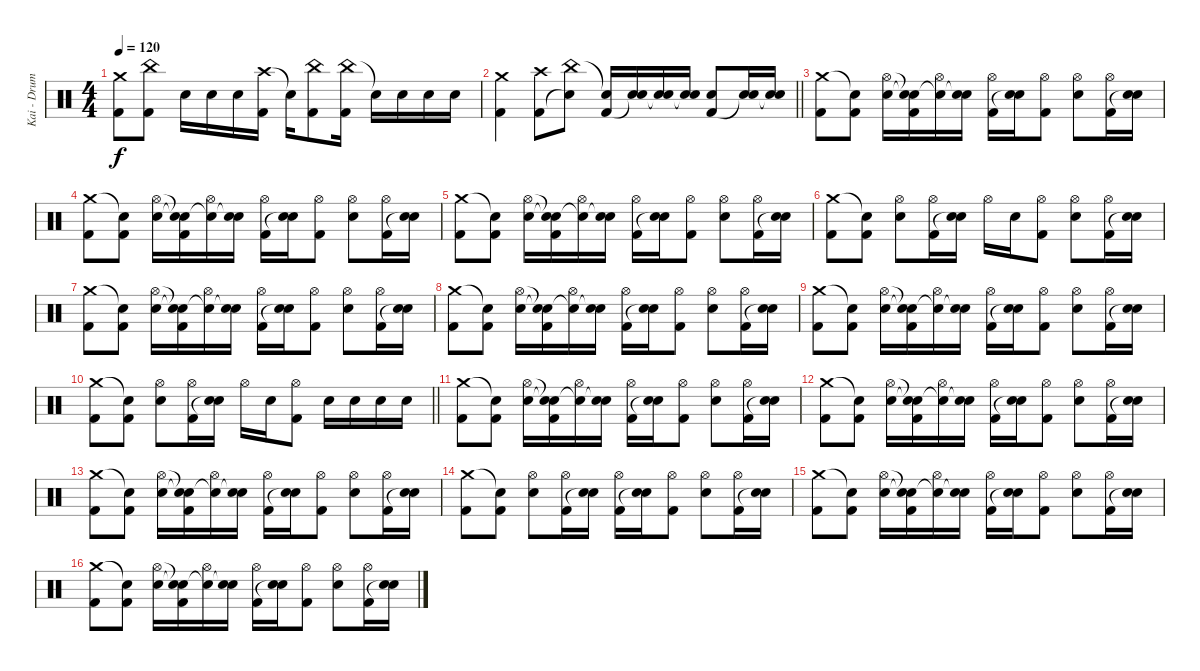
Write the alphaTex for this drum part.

\track ("Kai - Drums" "Kai - Drum") {instrument percussion}
\staff {score}
\articulation defaults
\ts (4 4)
\tempo 120
\clef neutral
\ks c
("Crash medium (hit)" "Kick (hit) 2").8{dy f} ("China (hit)" "Kick (hit) 2").8 "Snare (hit) 2".16 "Snare (hit) 2".16 "Snare (hit) 2".16 ("Crash high (hit)" "Kick (hit) 2").16 "Snare (hit)"{t}.16 ("China (hit)" "Kick (hit) 2").8 ("China (hit)" "Kick (hit) 2").16 "Snare (hit)"{t}.16 "Snare (hit) 2".16 "Snare (hit) 2".16 "Snare (hit) 2".16 |
\barLineRight lightlight
("Crash medium (hit)" "Kick (hit) 2").4 ("Crash high (hit)" "Kick (hit) 2").8 ("China (hit)" "Snare (hit)"{t}).8 ("Snare (hit)"{t} "Kick (hit) 2").16 ("Snare (hit) 2" "Snare (hit)"{t}).16 ("Snare (hit) 2" "Snare (hit)"{t}).16 ("Snare (hit) 2" "Snare (hit)"{t}).16 ("Snare (hit) 2" "Kick (hit) 2").8 ("Snare (hit) 2" "Snare (hit)"{t}).16 ("Snare (hit) 2" "Snare (hit)"{t}).16 |
("Crash medium (hit)" "Kick (hit) 2").8 ("Snare (hit)"{t} "Kick (hit) 2").8 ("Hi-Hat (open)" "Snare (hit) 2").16 ("Snare (hit)"{t} "Snare (hit)"{t} "Kick (hit) 2").16 ("Hi-Hat (open)" "Snare (hit)"{t}).16 ("Snare (hit) 2" "Snare (hit)"{t}).16 ("Hi-Hat (open)" "Kick (hit) 2").16 ("Snare (hit) 2" "Snare (hit)"{t}).16 ("Hi-Hat (open)" "Kick (hit) 2").8 ("Hi-Hat (open)" "Snare (hit) 2").8 ("Hi-Hat (open)" "Kick (hit) 2").16 ("Snare (hit) 2" "Snare (hit)"{t}).16 |
("Crash medium (hit)" "Kick (hit) 2").8 ("Snare (hit)"{t} "Kick (hit) 2").8 ("Hi-Hat (open)" "Snare (hit) 2").16 ("Snare (hit)"{t} "Snare (hit)"{t} "Kick (hit) 2").16 ("Hi-Hat (open)" "Snare (hit)"{t}).16 ("Snare (hit) 2" "Snare (hit)"{t}).16 ("Hi-Hat (open)" "Kick (hit) 2").16 ("Snare (hit) 2" "Snare (hit)"{t}).16 ("Hi-Hat (open)" "Kick (hit) 2").8 ("Hi-Hat (open)" "Snare (hit) 2").8 ("Hi-Hat (open)" "Kick (hit) 2").16 ("Snare (hit) 2" "Snare (hit)"{t}).16 |
("Crash medium (hit)" "Kick (hit) 2").8 ("Snare (hit)"{t} "Kick (hit) 2").8 ("Hi-Hat (open)" "Snare (hit) 2").16 ("Snare (hit)"{t} "Snare (hit)"{t} "Kick (hit) 2").16 ("Hi-Hat (open)" "Snare (hit)"{t}).16 ("Snare (hit) 2" "Snare (hit)"{t}).16 ("Hi-Hat (open)" "Kick (hit) 2").16 ("Snare (hit) 2" "Snare (hit)"{t}).16 ("Hi-Hat (open)" "Kick (hit) 2").8 ("Hi-Hat (open)" "Snare (hit) 2").8 ("Hi-Hat (open)" "Kick (hit) 2").16 ("Snare (hit) 2" "Snare (hit)"{t}).16 |
("Crash medium (hit)" "Kick (hit) 2").8 ("Snare (hit)"{t} "Kick (hit) 2").8 ("Hi-Hat (open)" "Snare (hit) 2").8 ("Hi-Hat (open)" "Kick (hit) 2").16 ("Snare (hit) 2" "Snare (hit)"{t}).16 "Hi-Hat (open)".16 "Snare (hit) 2".16 ("Hi-Hat (open)" "Kick (hit) 2").8 ("Hi-Hat (open)" "Snare (hit) 2").8 ("Hi-Hat (open)" "Kick (hit) 2").16 ("Snare (hit) 2" "Snare (hit)"{t}).16 |
("Crash medium (hit)" "Kick (hit) 2").8 ("Snare (hit)"{t} "Kick (hit) 2").8 ("Hi-Hat (open)" "Snare (hit) 2").16 ("Snare (hit)"{t} "Snare (hit)"{t} "Kick (hit) 2").16 ("Hi-Hat (open)" "Snare (hit)"{t}).16 ("Snare (hit) 2" "Snare (hit)"{t}).16 ("Hi-Hat (open)" "Kick (hit) 2").16 ("Snare (hit) 2" "Snare (hit)"{t}).16 ("Hi-Hat (open)" "Kick (hit) 2").8 ("Hi-Hat (open)" "Snare (hit) 2").8 ("Hi-Hat (open)" "Kick (hit) 2").16 ("Snare (hit) 2" "Snare (hit)"{t}).16 |
("Crash medium (hit)" "Kick (hit) 2").8 ("Snare (hit)"{t} "Kick (hit) 2").8 ("Hi-Hat (open)" "Snare (hit) 2").16 ("Snare (hit)"{t} "Snare (hit)"{t} "Kick (hit) 2").16 ("Hi-Hat (open)" "Snare (hit)"{t}).16 ("Snare (hit) 2" "Snare (hit)"{t}).16 ("Hi-Hat (open)" "Kick (hit) 2").16 ("Snare (hit) 2" "Snare (hit)"{t}).16 ("Hi-Hat (open)" "Kick (hit) 2").8 ("Hi-Hat (open)" "Snare (hit) 2").8 ("Hi-Hat (open)" "Kick (hit) 2").16 ("Snare (hit) 2" "Snare (hit)"{t}).16 |
("Crash medium (hit)" "Kick (hit) 2").8 ("Snare (hit)"{t} "Kick (hit) 2").8 ("Hi-Hat (open)" "Snare (hit) 2").16 ("Snare (hit)"{t} "Snare (hit)"{t} "Kick (hit) 2").16 ("Hi-Hat (open)" "Snare (hit)"{t}).16 ("Snare (hit) 2" "Snare (hit)"{t}).16 ("Hi-Hat (open)" "Kick (hit) 2").16 ("Snare (hit) 2" "Snare (hit)"{t}).16 ("Hi-Hat (open)" "Kick (hit) 2").8 ("Hi-Hat (open)" "Snare (hit) 2").8 ("Hi-Hat (open)" "Kick (hit) 2").16 ("Snare (hit) 2" "Snare (hit)"{t}).16 |
\barLineRight lightlight
("Crash medium (hit)" "Kick (hit) 2").8 ("Snare (hit)"{t} "Kick (hit) 2").8 ("Hi-Hat (open)" "Snare (hit) 2").8 ("Hi-Hat (open)" "Kick (hit) 2").16 ("Snare (hit) 2" "Snare (hit)"{t}).16 "Hi-Hat (open)".16 "Snare (hit) 2".16 ("Hi-Hat (open)" "Kick (hit) 2").8 "Snare (hit) 2".16 "Snare (hit) 2".16 "Snare (hit) 2".16 "Snare (hit) 2".16 |
("Crash medium (hit)" "Kick (hit) 2").8 ("Snare (hit)"{t} "Kick (hit) 2").8 ("Hi-Hat (open)" "Snare (hit) 2").16 ("Snare (hit)"{t} "Snare (hit)"{t} "Kick (hit) 2").16 ("Hi-Hat (open)" "Snare (hit)"{t}).16 ("Snare (hit) 2" "Snare (hit)"{t}).16 ("Hi-Hat (open)" "Kick (hit) 2").16 ("Snare (hit) 2" "Snare (hit)"{t}).16 ("Hi-Hat (open)" "Kick (hit) 2").8 ("Hi-Hat (open)" "Snare (hit) 2").8 ("Hi-Hat (open)" "Kick (hit) 2").16 ("Snare (hit) 2" "Snare (hit)"{t}).16 |
("Crash medium (hit)" "Kick (hit) 2").8 ("Snare (hit)"{t} "Kick (hit) 2").8 ("Hi-Hat (open)" "Snare (hit) 2").16 ("Snare (hit)"{t} "Snare (hit)"{t} "Kick (hit) 2").16 ("Hi-Hat (open)" "Snare (hit)"{t}).16 ("Snare (hit) 2" "Snare (hit)"{t}).16 ("Hi-Hat (open)" "Kick (hit) 2").16 ("Snare (hit) 2" "Snare (hit)"{t}).16 ("Hi-Hat (open)" "Kick (hit) 2").8 ("Hi-Hat (open)" "Snare (hit) 2").8 ("Hi-Hat (open)" "Kick (hit) 2").16 ("Snare (hit) 2" "Snare (hit)"{t}).16 |
("Crash medium (hit)" "Kick (hit) 2").8 ("Snare (hit)"{t} "Kick (hit) 2").8 ("Hi-Hat (open)" "Snare (hit) 2").16 ("Snare (hit)"{t} "Snare (hit)"{t} "Kick (hit) 2").16 ("Hi-Hat (open)" "Snare (hit)"{t}).16 ("Snare (hit) 2" "Snare (hit)"{t}).16 ("Hi-Hat (open)" "Kick (hit) 2").16 ("Snare (hit) 2" "Snare (hit)"{t}).16 ("Hi-Hat (open)" "Kick (hit) 2").8 ("Hi-Hat (open)" "Snare (hit) 2").8 ("Hi-Hat (open)" "Kick (hit) 2").16 ("Snare (hit) 2" "Snare (hit)"{t}).16 |
("Crash medium (hit)" "Kick (hit) 2").8 ("Snare (hit)"{t} "Kick (hit) 2").8 ("Hi-Hat (open)" "Snare (hit) 2").8 ("Hi-Hat (open)" "Kick (hit) 2").16 ("Snare (hit) 2" "Snare (hit)"{t}).16 ("Hi-Hat (open)" "Kick (hit) 2").16 ("Snare (hit) 2" "Snare (hit)"{t}).16 ("Hi-Hat (open)" "Kick (hit) 2").8 ("Hi-Hat (open)" "Snare (hit) 2").8 ("Hi-Hat (open)" "Kick (hit) 2").16 ("Snare (hit) 2" "Snare (hit)"{t}).16 |
("Crash medium (hit)" "Kick (hit) 2").8 ("Snare (hit)"{t} "Kick (hit) 2").8 ("Hi-Hat (open)" "Snare (hit) 2").16 ("Snare (hit)"{t} "Snare (hit)"{t} "Kick (hit) 2").16 ("Hi-Hat (open)" "Snare (hit)"{t}).16 ("Snare (hit) 2" "Snare (hit)"{t}).16 ("Hi-Hat (open)" "Kick (hit) 2").16 ("Snare (hit) 2" "Snare (hit)"{t}).16 ("Hi-Hat (open)" "Kick (hit) 2").8 ("Hi-Hat (open)" "Snare (hit) 2").8 ("Hi-Hat (open)" "Kick (hit) 2").16 ("Snare (hit) 2" "Snare (hit)"{t}).16 |
("Crash medium (hit)" "Kick (hit) 2").8 ("Snare (hit)"{t} "Kick (hit) 2").8 ("Hi-Hat (open)" "Snare (hit) 2").16 ("Snare (hit)"{t} "Snare (hit)"{t} "Kick (hit) 2").16 ("Hi-Hat (open)" "Snare (hit)"{t}).16 ("Snare (hit) 2" "Snare (hit)"{t}).16 ("Hi-Hat (open)" "Kick (hit) 2").16 ("Snare (hit) 2" "Snare (hit)"{t}).16 ("Hi-Hat (open)" "Kick (hit) 2").8 ("Hi-Hat (open)" "Snare (hit) 2").8 ("Hi-Hat (open)" "Kick (hit) 2").16 ("Snare (hit) 2" "Snare (hit)"{t}).16
